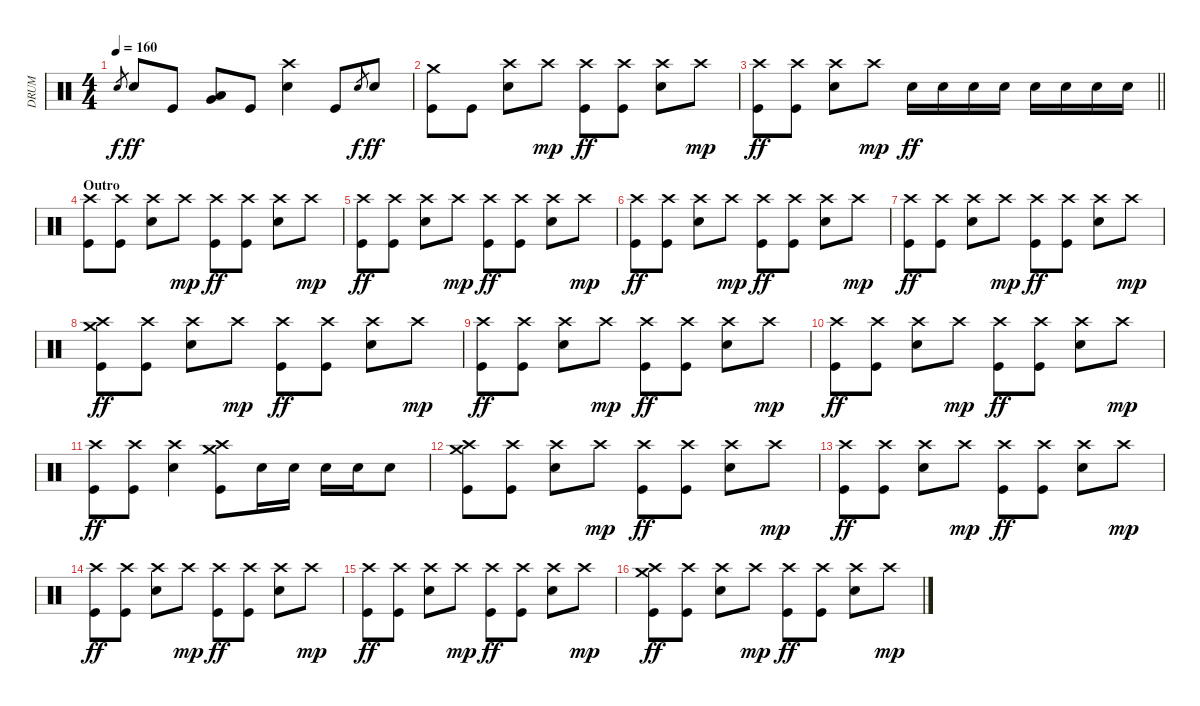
\track ("DRUM" "DRUM") {instrument percussion}
\staff {score}
\articulation defaults
\ts (4 4)
\tempo 160
\clef neutral
\ks c "Electric Snare (hit)".8{gr dy f} "Electric Snare (hit)".8{dy ff} "Kick (hit)".8
("Very Low Tom (hit)" "Low Floor Tom (hit)").8 "Kick (hit)".8 ("Crash high (hit)" "Electric Snare (hit)").4 "Kick (hit)".8 "Electric Snare (hit)".8{gr dy f} "Electric Snare (hit)".8{dy ff} |
("Crash medium (hit)" "Kick (hit)").8 "Kick (hit)".8 ("Crash high (hit)" "Electric Snare (hit)").8 "Crash high (hit)".8{dy mp} ("Crash high (hit)" "Kick (hit)").8{dy ff} ("Crash high (hit)" "Kick (hit)").8 ("Crash high (hit)" "Electric Snare (hit)").8 "Crash high (hit)".8{dy mp} |
\barLineRight lightlight
("Crash high (hit)" "Kick (hit)").8{dy ff} ("Crash high (hit)" "Kick (hit)").8 ("Crash high (hit)" "Electric Snare (hit)").8 "Crash high (hit)".8{dy mp} "Electric Snare (hit)".16{dy ff} "Electric Snare (hit)".16 "Electric Snare (hit)".16 "Electric Snare (hit)".16 "Electric Snare (hit)".16 "Electric Snare (hit)".16 "Electric Snare (hit)".16 "Electric Snare (hit)".16 |
\section ("" "Outro")
("Crash high (hit)" "Kick (hit)").8 ("Crash high (hit)" "Kick (hit)").8 ("Crash high (hit)" "Electric Snare (hit)").8 "Crash high (hit)".8{dy mp} ("Crash high (hit)" "Kick (hit)").8{dy ff} ("Crash high (hit)" "Kick (hit)").8 ("Crash high (hit)" "Electric Snare (hit)").8 "Crash high (hit)".8{dy mp} |
("Crash high (hit)" "Kick (hit)").8{dy ff} ("Crash high (hit)" "Kick (hit)").8 ("Crash high (hit)" "Electric Snare (hit)").8 "Crash high (hit)".8{dy mp} ("Crash high (hit)" "Kick (hit)").8{dy ff} ("Crash high (hit)" "Kick (hit)").8 ("Crash high (hit)" "Electric Snare (hit)").8 "Crash high (hit)".8{dy mp} |
("Crash high (hit)" "Kick (hit)").8{dy ff} ("Crash high (hit)" "Kick (hit)").8 ("Crash high (hit)" "Electric Snare (hit)").8 "Crash high (hit)".8{dy mp} ("Crash high (hit)" "Kick (hit)").8{dy ff} ("Crash high (hit)" "Kick (hit)").8 ("Crash high (hit)" "Electric Snare (hit)").8 "Crash high (hit)".8{dy mp} |
("Crash high (hit)" "Kick (hit)").8{dy ff} ("Crash high (hit)" "Kick (hit)").8 ("Crash high (hit)" "Electric Snare (hit)").8 "Crash high (hit)".8{dy mp} ("Crash high (hit)" "Kick (hit)").8{dy ff} ("Crash high (hit)" "Kick (hit)").8 ("Crash high (hit)" "Electric Snare (hit)").8 "Crash high (hit)".8{dy mp} |
("Crash high (hit)" "Crash medium (hit)" "Kick (hit)").8{dy ff} ("Crash high (hit)" "Kick (hit)").8 ("Crash high (hit)" "Electric Snare (hit)").8 "Crash high (hit)".8{dy mp} ("Crash high (hit)" "Kick (hit)").8{dy ff} ("Crash high (hit)" "Kick (hit)").8 ("Crash high (hit)" "Electric Snare (hit)").8 "Crash high (hit)".8{dy mp} |
("Crash high (hit)" "Kick (hit)").8{dy ff} ("Crash high (hit)" "Kick (hit)").8 ("Crash high (hit)" "Electric Snare (hit)").8 "Crash high (hit)".8{dy mp} ("Crash high (hit)" "Kick (hit)").8{dy ff} ("Crash high (hit)" "Kick (hit)").8 ("Crash high (hit)" "Electric Snare (hit)").8 "Crash high (hit)".8{dy mp} |
("Crash high (hit)" "Kick (hit)").8{dy ff} ("Crash high (hit)" "Kick (hit)").8 ("Crash high (hit)" "Electric Snare (hit)").8 "Crash high (hit)".8{dy mp} ("Crash high (hit)" "Kick (hit)").8{dy ff} ("Crash high (hit)" "Kick (hit)").8 ("Crash high (hit)" "Electric Snare (hit)").8 "Crash high (hit)".8{dy mp} |
("Crash high (hit)" "Kick (hit)").8{dy ff} ("Crash high (hit)" "Kick (hit)").8 ("Crash high (hit)" "Electric Snare (hit)").4 ("Crash high (hit)" "Crash medium (hit)" "Kick (hit)").8 "Electric Snare (hit)".16 "Electric Snare (hit)".16 "Electric Snare (hit)".16 "Electric Snare (hit)".16 "Electric Snare (hit)".8 |
("Crash high (hit)" "Crash medium (hit)" "Kick (hit)").8 ("Crash high (hit)" "Kick (hit)").8 ("Crash high (hit)" "Electric Snare (hit)").8 "Crash high (hit)".8{dy mp} ("Crash high (hit)" "Kick (hit)").8{dy ff} ("Crash high (hit)" "Kick (hit)").8 ("Crash high (hit)" "Electric Snare (hit)").8 "Crash high (hit)".8{dy mp} |
("Crash high (hit)" "Kick (hit)").8{dy ff} ("Crash high (hit)" "Kick (hit)").8 ("Crash high (hit)" "Electric Snare (hit)").8 "Crash high (hit)".8{dy mp} ("Crash high (hit)" "Kick (hit)").8{dy ff} ("Crash high (hit)" "Kick (hit)").8 ("Crash high (hit)" "Electric Snare (hit)").8 "Crash high (hit)".8{dy mp} |
("Crash high (hit)" "Kick (hit)").8{dy ff} ("Crash high (hit)" "Kick (hit)").8 ("Crash high (hit)" "Electric Snare (hit)").8 "Crash high (hit)".8{dy mp} ("Crash high (hit)" "Kick (hit)").8{dy ff} ("Crash high (hit)" "Kick (hit)").8 ("Crash high (hit)" "Electric Snare (hit)").8 "Crash high (hit)".8{dy mp} |
("Crash high (hit)" "Kick (hit)").8{dy ff} ("Crash high (hit)" "Kick (hit)").8 ("Crash high (hit)" "Electric Snare (hit)").8 "Crash high (hit)".8{dy mp} ("Crash high (hit)" "Kick (hit)").8{dy ff} ("Crash high (hit)" "Kick (hit)").8 ("Crash high (hit)" "Electric Snare (hit)").8 "Crash high (hit)".8{dy mp} |
("Crash high (hit)" "Crash medium (hit)" "Kick (hit)").8{dy ff} ("Crash high (hit)" "Kick (hit)").8 ("Crash high (hit)" "Electric Snare (hit)").8 "Crash high (hit)".8{dy mp} ("Crash high (hit)" "Kick (hit)").8{dy ff} ("Crash high (hit)" "Kick (hit)").8 ("Crash high (hit)" "Electric Snare (hit)").8 "Crash high (hit)".8{dy mp}
